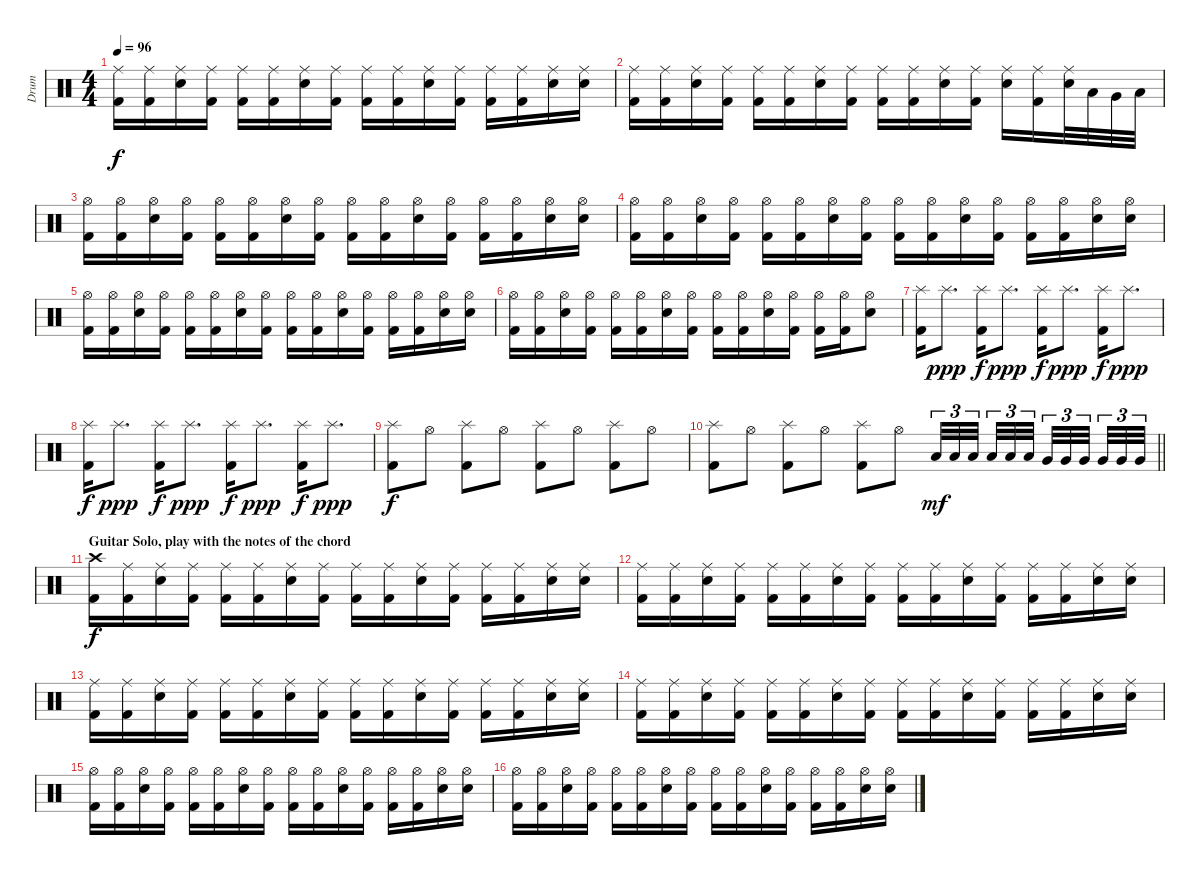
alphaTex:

\track ("Drum" "Drum") {instrument percussion}
\staff {score}
\articulation defaults
\ts (4 4)
\tempo 96
\clef neutral
\ks c
("Kick (hit) 2" "Ride (middle)").16{dy f} ("Kick (hit) 2" "Ride (middle)").16 ("Snare (hit) 2" "Ride (middle)").16 ("Kick (hit) 2" "Ride (middle)").16 ("Kick (hit) 2" "Ride (middle)").16 ("Kick (hit) 2" "Ride (middle)").16 ("Snare (hit) 2" "Ride (middle)").16 ("Kick (hit) 2" "Ride (middle)").16 ("Kick (hit) 2" "Ride (middle)").16 ("Kick (hit) 2" "Ride (middle)").16 ("Snare (hit) 2" "Ride (middle)").16 ("Kick (hit) 2" "Ride (middle)").16 ("Kick (hit) 2" "Ride (middle)").16 ("Kick (hit) 2" "Ride (middle)").16 ("Snare (hit) 2" "Ride (middle)").16 ("Snare (hit) 2" "Ride (middle)").16 |
("Kick (hit) 2" "Ride (middle)").16 ("Kick (hit) 2" "Ride (middle)").16 ("Snare (hit) 2" "Ride (middle)").16 ("Kick (hit) 2" "Ride (middle)").16 ("Kick (hit) 2" "Ride (middle)").16 ("Kick (hit) 2" "Ride (middle)").16 ("Snare (hit) 2" "Ride (middle)").16 ("Kick (hit) 2" "Ride (middle)").16 ("Kick (hit) 2" "Ride (middle)").16 ("Kick (hit) 2" "Ride (middle)").16 ("Snare (hit) 2" "Ride (middle)").16 ("Kick (hit) 2" "Ride (middle)").16 ("Snare (hit) 2" "Ride (middle)").16 ("Kick (hit) 2" "Ride (middle)").16 ("Snare (hit) 2" "Ride (middle)").32 "Low Tom (hit)".32 "Very Low Tom (hit)".32 "Low Floor Tom (hit)".32 |
("Kick (hit) 2" "Hi-Hat (open)").16 ("Kick (hit) 2" "Hi-Hat (open)").16 ("Snare (hit) 2" "Hi-Hat (open)").16 ("Kick (hit) 2" "Hi-Hat (open)").16 ("Kick (hit) 2" "Hi-Hat (open)").16 ("Kick (hit) 2" "Hi-Hat (open)").16 ("Snare (hit) 2" "Hi-Hat (open)").16 ("Kick (hit) 2" "Hi-Hat (open)").16 ("Kick (hit) 2" "Hi-Hat (open)").16 ("Kick (hit) 2" "Hi-Hat (open)").16 ("Snare (hit) 2" "Hi-Hat (open)").16 ("Kick (hit) 2" "Hi-Hat (open)").16 ("Kick (hit) 2" "Hi-Hat (open)").16 ("Kick (hit) 2" "Hi-Hat (open)").16 ("Snare (hit) 2" "Hi-Hat (open)").16 ("Snare (hit) 2" "Hi-Hat (open)").16 |
("Kick (hit) 2" "Hi-Hat (open)").16 ("Kick (hit) 2" "Hi-Hat (open)").16 ("Snare (hit) 2" "Hi-Hat (open)").16 ("Kick (hit) 2" "Hi-Hat (open)").16 ("Kick (hit) 2" "Hi-Hat (open)").16 ("Kick (hit) 2" "Hi-Hat (open)").16 ("Snare (hit) 2" "Hi-Hat (open)").16 ("Kick (hit) 2" "Hi-Hat (open)").16 ("Kick (hit) 2" "Hi-Hat (open)").16 ("Kick (hit) 2" "Hi-Hat (open)").16 ("Snare (hit) 2" "Hi-Hat (open)").16 ("Kick (hit) 2" "Hi-Hat (open)").16 ("Kick (hit) 2" "Hi-Hat (open)").16 ("Kick (hit) 2" "Hi-Hat (open)").16 ("Snare (hit) 2" "Hi-Hat (open)").16 ("Snare (hit) 2" "Hi-Hat (open)").16 |
("Kick (hit) 2" "Hi-Hat (open)").16 ("Kick (hit) 2" "Hi-Hat (open)").16 ("Snare (hit) 2" "Hi-Hat (open)").16 ("Kick (hit) 2" "Hi-Hat (open)").16 ("Kick (hit) 2" "Hi-Hat (open)").16 ("Kick (hit) 2" "Hi-Hat (open)").16 ("Snare (hit) 2" "Hi-Hat (open)").16 ("Kick (hit) 2" "Hi-Hat (open)").16 ("Kick (hit) 2" "Hi-Hat (open)").16 ("Kick (hit) 2" "Hi-Hat (open)").16 ("Snare (hit) 2" "Hi-Hat (open)").16 ("Kick (hit) 2" "Hi-Hat (open)").16 ("Kick (hit) 2" "Hi-Hat (open)").16 ("Kick (hit) 2" "Hi-Hat (open)").16 ("Snare (hit) 2" "Hi-Hat (open)").16 ("Snare (hit) 2" "Hi-Hat (open)").16 |
("Kick (hit) 2" "Hi-Hat (open)").16 ("Kick (hit) 2" "Hi-Hat (open)").16 ("Snare (hit) 2" "Hi-Hat (open)").16 ("Kick (hit) 2" "Hi-Hat (open)").16 ("Kick (hit) 2" "Hi-Hat (open)").16 ("Kick (hit) 2" "Hi-Hat (open)").16 ("Snare (hit) 2" "Hi-Hat (open)").16 ("Kick (hit) 2" "Hi-Hat (open)").16 ("Kick (hit) 2" "Hi-Hat (open)").16 ("Kick (hit) 2" "Hi-Hat (open)").16 ("Snare (hit) 2" "Hi-Hat (open)").16 ("Kick (hit) 2" "Hi-Hat (open)").16 ("Kick (hit) 2" "Hi-Hat (open)").16 ("Kick (hit) 2" "Hi-Hat (open)").16 ("Snare (hit) 2" "Hi-Hat (open)").8 |
("Kick (hit) 2" "Splash (hit)").16 "Splash (hit)".8{d dy ppp} ("Kick (hit) 2" "Splash (hit)").16{dy f} "Splash (hit)".8{d dy ppp} ("Kick (hit) 2" "Splash (hit)").16{dy f} "Splash (hit)".8{d dy ppp} ("Kick (hit) 2" "Splash (hit)").16{dy f} "Splash (hit)".8{d dy ppp} |
("Kick (hit) 2" "Splash (hit)").16{dy f} "Splash (hit)".8{d dy ppp} ("Kick (hit) 2" "Splash (hit)").16{dy f} "Splash (hit)".8{d dy ppp} ("Kick (hit) 2" "Splash (hit)").16{dy f} "Splash (hit)".8{d dy ppp} ("Kick (hit) 2" "Splash (hit)").16{dy f} "Splash (hit)".8{d dy ppp} |
("Kick (hit) 2" "Splash (hit)").8{dy f} "Hi-Hat (open)".8 ("Kick (hit) 2" "Splash (hit)").8 "Hi-Hat (open)".8 ("Kick (hit) 2" "Splash (hit)").8 "Hi-Hat (open)".8 ("Kick (hit) 2" "Splash (hit)").8 "Hi-Hat (open)".8 |
\barLineRight lightlight
("Kick (hit) 2" "Splash (hit)").8 "Hi-Hat (open)".8 ("Kick (hit) 2" "Splash (hit)").8 "Hi-Hat (open)".8 ("Kick (hit) 2" "Splash (hit)").8 "Hi-Hat (open)".8 "Low Tom (hit)".32{tu (3 2) dy mf} "Low Tom (hit)".32{tu (3 2)} "Low Tom (hit)".32{tu (3 2) beam splitsecondary} "Low Tom (hit)".32{tu (3 2)} "Low Tom (hit)".32{tu (3 2)} "Low Tom (hit)".32{tu (3 2) beam splitsecondary} "Very Low Tom (hit)".32{tu (3 2)} "Very Low Tom (hit)".32{tu (3 2)} "Very Low Tom (hit)".32{tu (3 2) beam splitsecondary} "Very Low Tom (hit)".32{tu (3 2)} "Very Low Tom (hit)".32{tu (3 2)} "Very Low Tom (hit)".32{tu (3 2)} |
\section ("" "Guitar Solo, play with the notes of the chord")
("Kick (hit) 2" "Crash high (hit)").16{dy f} ("Kick (hit) 2" "Ride (middle)").16 ("Snare (hit) 2" "Ride (middle)").16 ("Kick (hit) 2" "Ride (middle)").16 ("Kick (hit) 2" "Ride (middle)").16 ("Kick (hit) 2" "Ride (middle)").16 ("Snare (hit) 2" "Ride (middle)").16 ("Kick (hit) 2" "Ride (middle)").16 ("Kick (hit) 2" "Ride (middle)").16 ("Kick (hit) 2" "Ride (middle)").16 ("Snare (hit) 2" "Ride (middle)").16 ("Kick (hit) 2" "Ride (middle)").16 ("Kick (hit) 2" "Ride (middle)").16 ("Kick (hit) 2" "Ride (middle)").16 ("Snare (hit) 2" "Ride (middle)").16 ("Snare (hit) 2" "Ride (middle)").16 |
("Kick (hit) 2" "Ride (middle)").16 ("Kick (hit) 2" "Ride (middle)").16 ("Snare (hit) 2" "Ride (middle)").16 ("Kick (hit) 2" "Ride (middle)").16 ("Kick (hit) 2" "Ride (middle)").16 ("Kick (hit) 2" "Ride (middle)").16 ("Snare (hit) 2" "Ride (middle)").16 ("Kick (hit) 2" "Ride (middle)").16 ("Kick (hit) 2" "Ride (middle)").16 ("Kick (hit) 2" "Ride (middle)").16 ("Snare (hit) 2" "Ride (middle)").16 ("Kick (hit) 2" "Ride (middle)").16 ("Kick (hit) 2" "Ride (middle)").16 ("Kick (hit) 2" "Ride (middle)").16 ("Snare (hit) 2" "Ride (middle)").16 ("Snare (hit) 2" "Ride (middle)").16 |
("Kick (hit) 2" "Ride (middle)").16 ("Kick (hit) 2" "Ride (middle)").16 ("Snare (hit) 2" "Ride (middle)").16 ("Kick (hit) 2" "Ride (middle)").16 ("Kick (hit) 2" "Ride (middle)").16 ("Kick (hit) 2" "Ride (middle)").16 ("Snare (hit) 2" "Ride (middle)").16 ("Kick (hit) 2" "Ride (middle)").16 ("Kick (hit) 2" "Ride (middle)").16 ("Kick (hit) 2" "Ride (middle)").16 ("Snare (hit) 2" "Ride (middle)").16 ("Kick (hit) 2" "Ride (middle)").16 ("Kick (hit) 2" "Ride (middle)").16 ("Kick (hit) 2" "Ride (middle)").16 ("Snare (hit) 2" "Ride (middle)").16 ("Snare (hit) 2" "Ride (middle)").16 |
("Kick (hit) 2" "Ride (middle)").16 ("Kick (hit) 2" "Ride (middle)").16 ("Snare (hit) 2" "Ride (middle)").16 ("Kick (hit) 2" "Ride (middle)").16 ("Kick (hit) 2" "Ride (middle)").16 ("Kick (hit) 2" "Ride (middle)").16 ("Snare (hit) 2" "Ride (middle)").16 ("Kick (hit) 2" "Ride (middle)").16 ("Kick (hit) 2" "Ride (middle)").16 ("Kick (hit) 2" "Ride (middle)").16 ("Snare (hit) 2" "Ride (middle)").16 ("Kick (hit) 2" "Ride (middle)").16 ("Kick (hit) 2" "Ride (middle)").16 ("Kick (hit) 2" "Ride (middle)").16 ("Snare (hit) 2" "Ride (middle)").16 ("Snare (hit) 2" "Ride (middle)").16 |
("Kick (hit) 2" "Hi-Hat (open)").16 ("Kick (hit) 2" "Hi-Hat (open)").16 ("Snare (hit) 2" "Hi-Hat (open)").16 ("Kick (hit) 2" "Hi-Hat (open)").16 ("Kick (hit) 2" "Hi-Hat (open)").16 ("Kick (hit) 2" "Hi-Hat (open)").16 ("Snare (hit) 2" "Hi-Hat (open)").16 ("Kick (hit) 2" "Hi-Hat (open)").16 ("Kick (hit) 2" "Hi-Hat (open)").16 ("Kick (hit) 2" "Hi-Hat (open)").16 ("Snare (hit) 2" "Hi-Hat (open)").16 ("Kick (hit) 2" "Hi-Hat (open)").16 ("Kick (hit) 2" "Hi-Hat (open)").16 ("Kick (hit) 2" "Hi-Hat (open)").16 ("Snare (hit) 2" "Hi-Hat (open)").16 ("Snare (hit) 2" "Hi-Hat (open)").16 |
("Kick (hit) 2" "Hi-Hat (open)").16 ("Kick (hit) 2" "Hi-Hat (open)").16 ("Snare (hit) 2" "Hi-Hat (open)").16 ("Kick (hit) 2" "Hi-Hat (open)").16 ("Kick (hit) 2" "Hi-Hat (open)").16 ("Kick (hit) 2" "Hi-Hat (open)").16 ("Snare (hit) 2" "Hi-Hat (open)").16 ("Kick (hit) 2" "Hi-Hat (open)").16 ("Kick (hit) 2" "Hi-Hat (open)").16 ("Kick (hit) 2" "Hi-Hat (open)").16 ("Snare (hit) 2" "Hi-Hat (open)").16 ("Kick (hit) 2" "Hi-Hat (open)").16 ("Kick (hit) 2" "Hi-Hat (open)").16 ("Kick (hit) 2" "Hi-Hat (open)").16 ("Snare (hit) 2" "Hi-Hat (open)").16 ("Snare (hit) 2" "Hi-Hat (open)").16
